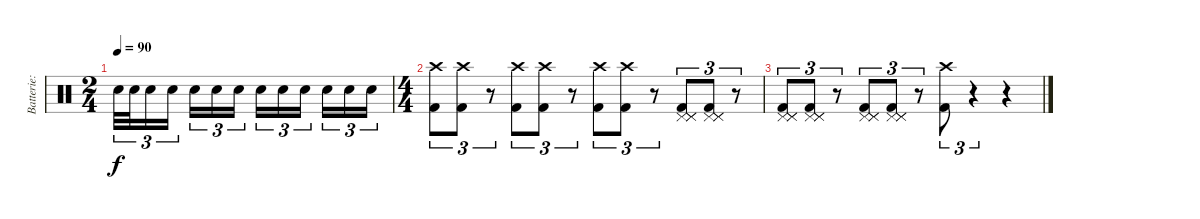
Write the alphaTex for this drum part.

\track ("Batterie: Paul" "Batterie: ") {instrument percussion}
\staff {score}
\articulation defaults
\ts (2 4)
\tempo 90
\clef neutral
\ks c "Snare (hit) 2".32{tu (3 2) dy f} "Snare (hit) 2".32{tu (3 2)} "Snare (hit) 2".16{tu (3 2)} "Snare (hit) 2".16{tu (3 2)} "Snare (hit) 2".16{tu (3 2)} "Snare (hit) 2".16{tu (3 2)} "Snare (hit) 2".16{tu (3 2)} "Snare (hit) 2".16{tu (3 2)} "Snare (hit) 2".16{tu (3 2)} "Snare (hit) 2".16{tu (3 2)} "Snare (hit) 2".16{tu (3 2)} "Snare (hit) 2".16{tu (3 2)} "Snare (hit) 2".16{tu (3 2)}
|
\ts (4 4)
("Crash high (hit)" "Kick (hit) 2").8{tu (3 2)} ("Crash high (hit)" "Kick (hit) 2").8{tu (3 2)} r.8{tu (3 2)} ("Crash high (hit)" "Kick (hit) 2").8{tu (3 2)} ("Crash high (hit)" "Kick (hit) 2").8{tu (3 2)} r.8{tu (3 2)} ("Crash high (hit)" "Kick (hit) 2").8{tu (3 2)} ("Crash high (hit)" "Kick (hit) 2").8{tu (3 2)} r.8{tu (3 2)} ("Pedal Hi-Hat (hit)" "Pedal Hi-Hat (hit)" "Pedal Hi-Hat (hit)" "Kick (hit) 2").8{tu (3 2)} ("Pedal Hi-Hat (hit)" "Pedal Hi-Hat (hit)" "Pedal Hi-Hat (hit)" "Kick (hit) 2").8{tu (3 2)} r.8{tu (3 2)} |
("Pedal Hi-Hat (hit)" "Pedal Hi-Hat (hit)" "Pedal Hi-Hat (hit)" "Kick (hit) 2").8{tu (3 2)} ("Pedal Hi-Hat (hit)" "Pedal Hi-Hat (hit)" "Pedal Hi-Hat (hit)" "Kick (hit) 2").8{tu (3 2)} r.8{tu (3 2)} ("Pedal Hi-Hat (hit)" "Pedal Hi-Hat (hit)" "Pedal Hi-Hat (hit)" "Kick (hit) 2").8{tu (3 2)} ("Pedal Hi-Hat (hit)" "Pedal Hi-Hat (hit)" "Pedal Hi-Hat (hit)" "Kick (hit) 2").8{tu (3 2)} r.8{tu (3 2)} ("Crash high (hit)" "Kick (hit) 2").8{tu (3 2)} r.4{tu (3 2)} r.4
